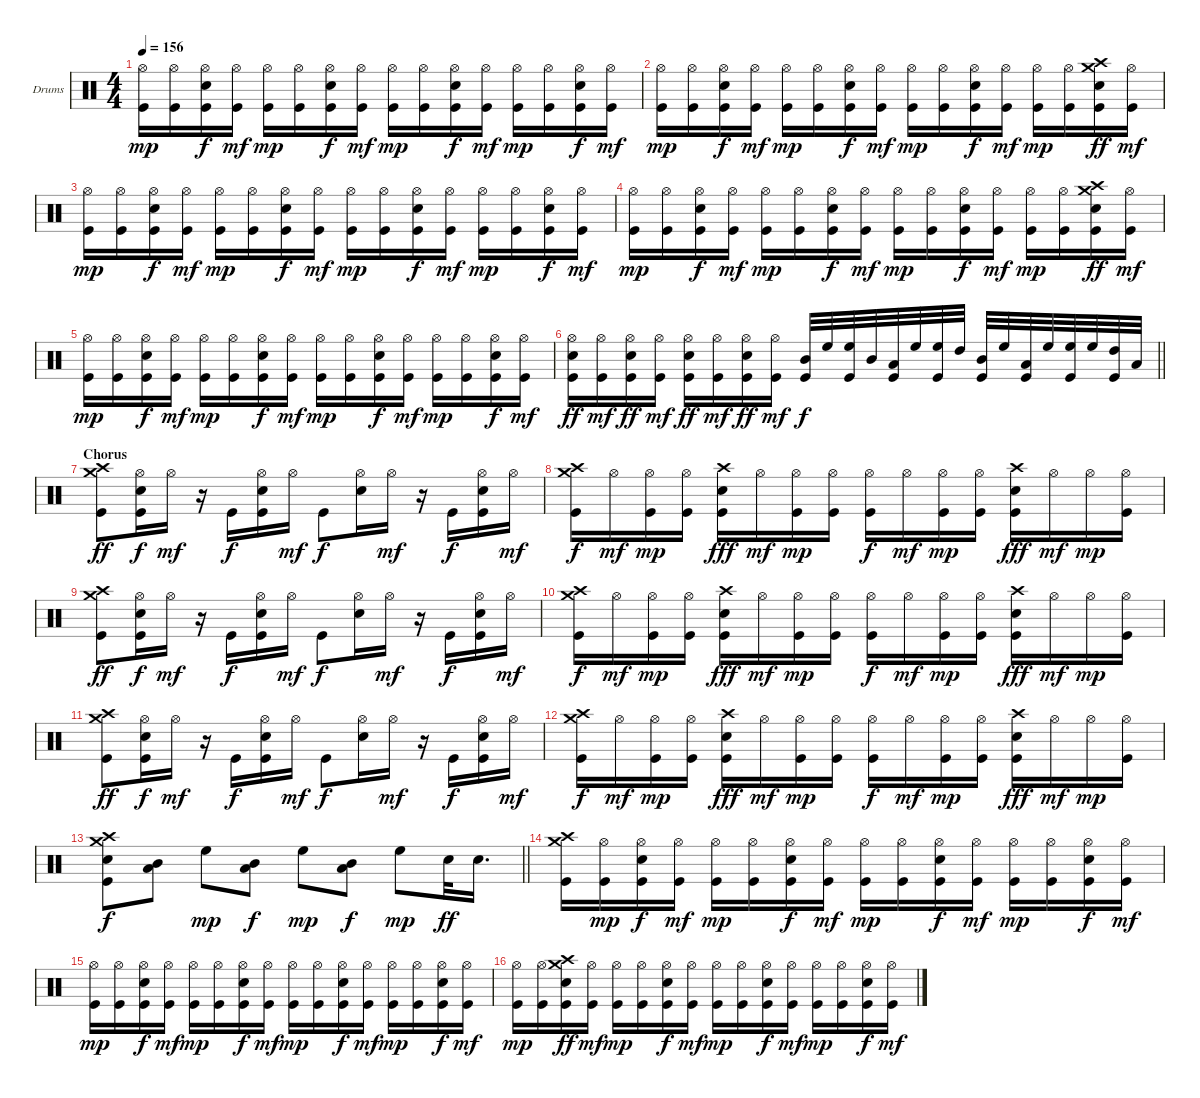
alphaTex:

\bracketExtendMode groupsimilarinstruments
\firstSystemTrackNameOrientation horizontal
\otherSystemsTrackNameOrientation horizontal
\track ("Drums" "Drums") {instrument percussion}
\staff {score}
\articulation defaults
\ts (4 4)
\tempo 156
\clef neutral
\ks c
("Hi-Hat (open)" "Kick (hit)").16{dy mp} ("Hi-Hat (open)" "Kick (hit)").16 ("Hi-Hat (open)" "Snare (hit) 2" "Kick (hit)").16{dy f} ("Hi-Hat (open)" "Kick (hit)").16{dy mf} ("Hi-Hat (open)" "Kick (hit)").16{dy mp} ("Hi-Hat (open)" "Kick (hit)").16 ("Hi-Hat (open)" "Snare (hit) 2" "Kick (hit)").16{dy f} ("Hi-Hat (open)" "Kick (hit)").16{dy mf} ("Hi-Hat (open)" "Kick (hit)").16{dy mp} ("Hi-Hat (open)" "Kick (hit)").16 ("Hi-Hat (open)" "Snare (hit) 2" "Kick (hit)").16{dy f} ("Hi-Hat (open)" "Kick (hit)").16{dy mf} ("Hi-Hat (open)" "Kick (hit)").16{dy mp} ("Hi-Hat (open)" "Kick (hit)").16 ("Hi-Hat (open)" "Snare (hit) 2" "Kick (hit)").16{dy f} ("Hi-Hat (open)" "Kick (hit)").16{dy mf} |
("Hi-Hat (open)" "Kick (hit)").16{dy mp} ("Hi-Hat (open)" "Kick (hit)").16 ("Hi-Hat (open)" "Snare (hit) 2" "Kick (hit)").16{dy f} ("Hi-Hat (open)" "Kick (hit)").16{dy mf} ("Hi-Hat (open)" "Kick (hit)").16{dy mp} ("Hi-Hat (open)" "Kick (hit)").16 ("Hi-Hat (open)" "Snare (hit) 2" "Kick (hit)").16{dy f} ("Hi-Hat (open)" "Kick (hit)").16{dy mf} ("Hi-Hat (open)" "Kick (hit)").16{dy mp} ("Hi-Hat (open)" "Kick (hit)").16 ("Hi-Hat (open)" "Snare (hit) 2" "Kick (hit)").16{dy f} ("Hi-Hat (open)" "Kick (hit)").16{dy mf} ("Hi-Hat (open)" "Kick (hit)").16{dy mp} ("Hi-Hat (open)" "Kick (hit)").16 ("Crash medium (hit)" "Crash high (hit)" "Snare (hit) 2" "Kick (hit)").16{dy ff} ("Hi-Hat (open)" "Kick (hit)").16{dy mf} |
("Hi-Hat (open)" "Kick (hit)").16{dy mp} ("Hi-Hat (open)" "Kick (hit)").16 ("Hi-Hat (open)" "Snare (hit) 2" "Kick (hit)").16{dy f} ("Hi-Hat (open)" "Kick (hit)").16{dy mf} ("Hi-Hat (open)" "Kick (hit)").16{dy mp} ("Hi-Hat (open)" "Kick (hit)").16 ("Hi-Hat (open)" "Snare (hit) 2" "Kick (hit)").16{dy f} ("Hi-Hat (open)" "Kick (hit)").16{dy mf} ("Hi-Hat (open)" "Kick (hit)").16{dy mp} ("Hi-Hat (open)" "Kick (hit)").16 ("Hi-Hat (open)" "Snare (hit) 2" "Kick (hit)").16{dy f} ("Hi-Hat (open)" "Kick (hit)").16{dy mf} ("Hi-Hat (open)" "Kick (hit)").16{dy mp} ("Hi-Hat (open)" "Kick (hit)").16 ("Hi-Hat (open)" "Snare (hit) 2" "Kick (hit)").16{dy f} ("Hi-Hat (open)" "Kick (hit)").16{dy mf} |
("Hi-Hat (open)" "Kick (hit)").16{dy mp} ("Hi-Hat (open)" "Kick (hit)").16 ("Hi-Hat (open)" "Snare (hit) 2" "Kick (hit)").16{dy f} ("Hi-Hat (open)" "Kick (hit)").16{dy mf} ("Hi-Hat (open)" "Kick (hit)").16{dy mp} ("Hi-Hat (open)" "Kick (hit)").16 ("Hi-Hat (open)" "Snare (hit) 2" "Kick (hit)").16{dy f} ("Hi-Hat (open)" "Kick (hit)").16{dy mf} ("Hi-Hat (open)" "Kick (hit)").16{dy mp} ("Hi-Hat (open)" "Kick (hit)").16 ("Hi-Hat (open)" "Snare (hit) 2" "Kick (hit)").16{dy f} ("Hi-Hat (open)" "Kick (hit)").16{dy mf} ("Hi-Hat (open)" "Kick (hit)").16{dy mp} ("Hi-Hat (open)" "Kick (hit)").16 ("Crash medium (hit)" "Crash high (hit)" "Snare (hit) 2" "Kick (hit)").16{dy ff} ("Hi-Hat (open)" "Kick (hit)").16{dy mf} |
("Hi-Hat (open)" "Kick (hit)").16{dy mp} ("Hi-Hat (open)" "Kick (hit)").16 ("Hi-Hat (open)" "Snare (hit) 2" "Kick (hit)").16{dy f} ("Hi-Hat (open)" "Kick (hit)").16{dy mf} ("Hi-Hat (open)" "Kick (hit)").16{dy mp} ("Hi-Hat (open)" "Kick (hit)").16 ("Hi-Hat (open)" "Snare (hit) 2" "Kick (hit)").16{dy f} ("Hi-Hat (open)" "Kick (hit)").16{dy mf} ("Hi-Hat (open)" "Kick (hit)").16{dy mp} ("Hi-Hat (open)" "Kick (hit)").16 ("Hi-Hat (open)" "Snare (hit) 2" "Kick (hit)").16{dy f} ("Hi-Hat (open)" "Kick (hit)").16{dy mf} ("Hi-Hat (open)" "Kick (hit)").16{dy mp} ("Hi-Hat (open)" "Kick (hit)").16 ("Hi-Hat (open)" "Snare (hit) 2" "Kick (hit)").16{dy f} ("Hi-Hat (open)" "Kick (hit)").16{dy mf} |
\barLineRight lightlight
("Hi-Hat (open)" "Snare (hit) 2" "Kick (hit)").16{dy ff} ("Hi-Hat (open)" "Kick (hit)").16{dy mf} ("Hi-Hat (open)" "Snare (hit) 2" "Kick (hit)").16{dy ff} ("Hi-Hat (open)" "Kick (hit)").16{dy mf} ("Hi-Hat (open)" "Snare (hit) 2" "Kick (hit)").16{dy ff} ("Hi-Hat (open)" "Kick (hit)").16{dy mf} ("Hi-Hat (open)" "Snare (hit) 2" "Kick (hit)").16{dy ff} ("Hi-Hat (open)" "Kick (hit)").16{dy mf} ("Mid Tom (hit)" "Kick (hit)").32{dy f} "High Floor Tom (hit)".32 ("High Floor Tom (hit)" "Kick (hit)").32 "Mid Tom (hit)".32 ("Low Tom (hit)" "Kick (hit)").32 "High Floor Tom (hit)".32 ("High Floor Tom (hit)" "Kick (hit)").32 "High Tom (hit)".32 ("Mid Tom (hit)" "Kick (hit)").32 "High Floor Tom (hit)".32 ("Low Tom (hit)" "Kick (hit)").32 "High Floor Tom (hit)".32 ("High Floor Tom (hit)" "Kick (hit)").32 "High Floor Tom (hit)".32 ("High Tom (hit)" "Kick (hit)").32 "Low Tom (hit)".32 |
\section ("" "Chorus")
("Crash medium (hit)" "Crash high (hit)" "Kick (hit)").8{dy ff} ("Hi-Hat (open)" "Snare (hit) 2" "Kick (hit)").16{dy f} "Hi-Hat (open)".16{dy mf} r.16 "Kick (hit)".16{dy f} ("Hi-Hat (open)" "Snare (hit) 2" "Kick (hit)").16 "Hi-Hat (open)".16{dy mf} "Kick (hit)".8{dy f} ("Hi-Hat (open)" "Snare (hit) 2").16 "Hi-Hat (open)".16{dy mf} r.16 "Kick (hit)".16{dy f} ("Hi-Hat (open)" "Snare (hit) 2" "Kick (hit)").16 "Hi-Hat (open)".16{dy mf} |
("Crash medium (hit)" "Crash high (hit)" "Kick (hit)").16{dy f} "Hi-Hat (open)".16{dy mf} ("Hi-Hat (open)" "Kick (hit)").16{dy mp} ("Hi-Hat (open)" "Kick (hit)").16 ("Crash high (hit)" "Snare (hit) 2" "Kick (hit)").16{dy fff} "Hi-Hat (open)".16{dy mf} ("Hi-Hat (open)" "Kick (hit)").16{dy mp} ("Hi-Hat (open)" "Kick (hit)").16 ("Hi-Hat (open)" "Kick (hit)").16{dy f} "Hi-Hat (open)".16{dy mf} ("Hi-Hat (open)" "Kick (hit)").16{dy mp} ("Hi-Hat (open)" "Kick (hit)").16 ("Crash high (hit)" "Snare (hit) 2" "Kick (hit)").16{dy fff} "Hi-Hat (open)".16{dy mf} "Hi-Hat (open)".16{dy mp} ("Hi-Hat (open)" "Kick (hit)").16 |
("Crash medium (hit)" "Crash high (hit)" "Kick (hit)").8{dy ff} ("Hi-Hat (open)" "Snare (hit) 2" "Kick (hit)").16{dy f} "Hi-Hat (open)".16{dy mf} r.16 "Kick (hit)".16{dy f} ("Hi-Hat (open)" "Snare (hit) 2" "Kick (hit)").16 "Hi-Hat (open)".16{dy mf} "Kick (hit)".8{dy f} ("Hi-Hat (open)" "Snare (hit) 2").16 "Hi-Hat (open)".16{dy mf} r.16 "Kick (hit)".16{dy f} ("Hi-Hat (open)" "Snare (hit) 2" "Kick (hit)").16 "Hi-Hat (open)".16{dy mf} |
("Crash medium (hit)" "Crash high (hit)" "Kick (hit)").16{dy f} "Hi-Hat (open)".16{dy mf} ("Hi-Hat (open)" "Kick (hit)").16{dy mp} ("Hi-Hat (open)" "Kick (hit)").16 ("Crash high (hit)" "Snare (hit) 2" "Kick (hit)").16{dy fff} "Hi-Hat (open)".16{dy mf} ("Hi-Hat (open)" "Kick (hit)").16{dy mp} ("Hi-Hat (open)" "Kick (hit)").16 ("Hi-Hat (open)" "Kick (hit)").16{dy f} "Hi-Hat (open)".16{dy mf} ("Hi-Hat (open)" "Kick (hit)").16{dy mp} ("Hi-Hat (open)" "Kick (hit)").16 ("Crash high (hit)" "Snare (hit) 2" "Kick (hit)").16{dy fff} "Hi-Hat (open)".16{dy mf} "Hi-Hat (open)".16{dy mp} ("Hi-Hat (open)" "Kick (hit)").16 |
("Crash medium (hit)" "Crash high (hit)" "Kick (hit)").8{dy ff} ("Hi-Hat (open)" "Snare (hit) 2" "Kick (hit)").16{dy f} "Hi-Hat (open)".16{dy mf} r.16 "Kick (hit)".16{dy f} ("Hi-Hat (open)" "Snare (hit) 2" "Kick (hit)").16 "Hi-Hat (open)".16{dy mf} "Kick (hit)".8{dy f} ("Hi-Hat (open)" "Snare (hit) 2").16 "Hi-Hat (open)".16{dy mf} r.16 "Kick (hit)".16{dy f} ("Hi-Hat (open)" "Snare (hit) 2" "Kick (hit)").16 "Hi-Hat (open)".16{dy mf} |
("Crash medium (hit)" "Crash high (hit)" "Kick (hit)").16{dy f} "Hi-Hat (open)".16{dy mf} ("Hi-Hat (open)" "Kick (hit)").16{dy mp} ("Hi-Hat (open)" "Kick (hit)").16 ("Crash high (hit)" "Snare (hit) 2" "Kick (hit)").16{dy fff} "Hi-Hat (open)".16{dy mf} ("Hi-Hat (open)" "Kick (hit)").16{dy mp} ("Hi-Hat (open)" "Kick (hit)").16 ("Hi-Hat (open)" "Kick (hit)").16{dy f} "Hi-Hat (open)".16{dy mf} ("Hi-Hat (open)" "Kick (hit)").16{dy mp} ("Hi-Hat (open)" "Kick (hit)").16 ("Crash high (hit)" "Snare (hit) 2" "Kick (hit)").16{dy fff} "Hi-Hat (open)".16{dy mf} "Hi-Hat (open)".16{dy mp} ("Hi-Hat (open)" "Kick (hit)").16 |
\barLineRight lightlight
("Crash medium (hit)" "Crash high (hit)" "Snare (hit) 2" "Kick (hit)").8{dy f} ("Mid Tom (hit)" "Low Tom (hit)").8 "High Floor Tom (hit)".8{dy mp} ("Mid Tom (hit)" "Low Tom (hit)").8{dy f} "High Floor Tom (hit)".8{dy mp} ("Mid Tom (hit)" "Low Tom (hit)").8{dy f} "High Floor Tom (hit)".8{dy mp} "Snare (hit) 2".32{dy ff} "Snare (hit) 2".16{d} |
("Crash medium (hit)" "Crash high (hit)" "Kick (hit)").16 ("Hi-Hat (open)" "Kick (hit)").16{dy mp} ("Hi-Hat (open)" "Snare (hit) 2" "Kick (hit)").16{dy f} ("Hi-Hat (open)" "Kick (hit)").16{dy mf} ("Hi-Hat (open)" "Kick (hit)").16{dy mp} ("Hi-Hat (open)" "Kick (hit)").16 ("Hi-Hat (open)" "Snare (hit) 2" "Kick (hit)").16{dy f} ("Hi-Hat (open)" "Kick (hit)").16{dy mf} ("Hi-Hat (open)" "Kick (hit)").16{dy mp} ("Hi-Hat (open)" "Kick (hit)").16 ("Hi-Hat (open)" "Snare (hit) 2" "Kick (hit)").16{dy f} ("Hi-Hat (open)" "Kick (hit)").16{dy mf} ("Hi-Hat (open)" "Kick (hit)").16{dy mp} ("Hi-Hat (open)" "Kick (hit)").16 ("Hi-Hat (open)" "Snare (hit) 2" "Kick (hit)").16{dy f} ("Hi-Hat (open)" "Kick (hit)").16{dy mf} |
("Hi-Hat (open)" "Kick (hit)").16{dy mp} ("Hi-Hat (open)" "Kick (hit)").16 ("Hi-Hat (open)" "Snare (hit) 2" "Kick (hit)").16{dy f} ("Hi-Hat (open)" "Kick (hit)").16{dy mf} ("Hi-Hat (open)" "Kick (hit)").16{dy mp} ("Hi-Hat (open)" "Kick (hit)").16 ("Hi-Hat (open)" "Snare (hit) 2" "Kick (hit)").16{dy f} ("Hi-Hat (open)" "Kick (hit)").16{dy mf} ("Hi-Hat (open)" "Kick (hit)").16{dy mp} ("Hi-Hat (open)" "Kick (hit)").16 ("Hi-Hat (open)" "Snare (hit) 2" "Kick (hit)").16{dy f} ("Hi-Hat (open)" "Kick (hit)").16{dy mf} ("Hi-Hat (open)" "Kick (hit)").16{dy mp} ("Hi-Hat (open)" "Kick (hit)").16 ("Hi-Hat (open)" "Snare (hit) 2" "Kick (hit)").16{dy f} ("Hi-Hat (open)" "Kick (hit)").16{dy mf} |
("Hi-Hat (open)" "Kick (hit)").16{dy mp} ("Hi-Hat (open)" "Kick (hit)").16 ("Crash medium (hit)" "Crash high (hit)" "Snare (hit) 2" "Kick (hit)").16{dy ff} ("Hi-Hat (open)" "Kick (hit)").16{dy mf} ("Hi-Hat (open)" "Kick (hit)").16{dy mp} ("Hi-Hat (open)" "Kick (hit)").16 ("Hi-Hat (open)" "Snare (hit) 2" "Kick (hit)").16{dy f} ("Hi-Hat (open)" "Kick (hit)").16{dy mf} ("Hi-Hat (open)" "Kick (hit)").16{dy mp} ("Hi-Hat (open)" "Kick (hit)").16 ("Hi-Hat (open)" "Snare (hit) 2" "Kick (hit)").16{dy f} ("Hi-Hat (open)" "Kick (hit)").16{dy mf} ("Hi-Hat (open)" "Kick (hit)").16{dy mp} ("Hi-Hat (open)" "Kick (hit)").16 ("Hi-Hat (open)" "Snare (hit) 2" "Kick (hit)").16{dy f} ("Hi-Hat (open)" "Kick (hit)").16{dy mf}
